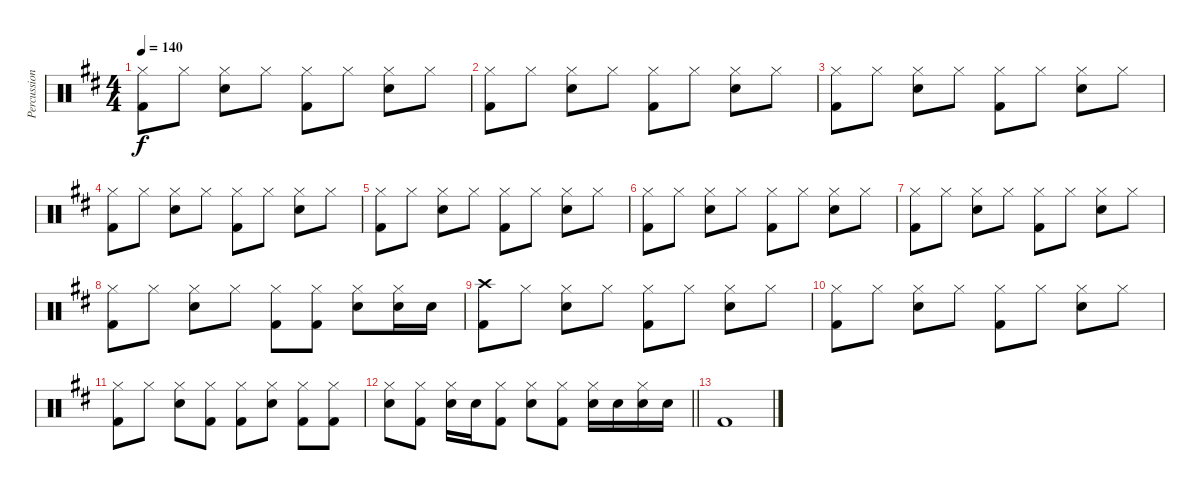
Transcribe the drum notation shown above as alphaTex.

\track ("Percussion" "Percussion") {instrument percussion}
\staff {score}
\articulation defaults
\ts (4 4)
\tempo 140
\clef neutral
\ks bminor
("Hi-Hat (closed)" "Kick (hit) 2").8{dy f} "Hi-Hat (closed)".8 ("Hi-Hat (closed)" "Snare (hit) 2").8 "Hi-Hat (closed)".8 ("Hi-Hat (closed)" "Kick (hit) 2").8 "Hi-Hat (closed)".8 ("Hi-Hat (closed)" "Snare (hit) 2").8 "Hi-Hat (closed)".8 |
("Hi-Hat (closed)" "Kick (hit) 2").8 "Hi-Hat (closed)".8 ("Hi-Hat (closed)" "Snare (hit) 2").8 "Hi-Hat (closed)".8 ("Hi-Hat (closed)" "Kick (hit) 2").8 "Hi-Hat (closed)".8 ("Hi-Hat (closed)" "Snare (hit) 2").8 "Hi-Hat (closed)".8 |
("Hi-Hat (closed)" "Kick (hit) 2").8 "Hi-Hat (closed)".8 ("Hi-Hat (closed)" "Snare (hit) 2").8 "Hi-Hat (closed)".8 ("Hi-Hat (closed)" "Kick (hit) 2").8 "Hi-Hat (closed)".8 ("Hi-Hat (closed)" "Snare (hit) 2").8 "Hi-Hat (closed)".8 |
("Hi-Hat (closed)" "Kick (hit) 2").8 "Hi-Hat (closed)".8 ("Hi-Hat (closed)" "Snare (hit) 2").8 "Hi-Hat (closed)".8 ("Hi-Hat (closed)" "Kick (hit) 2").8 "Hi-Hat (closed)".8 ("Hi-Hat (closed)" "Snare (hit) 2").8 "Hi-Hat (closed)".8 |
("Hi-Hat (closed)" "Kick (hit) 2").8 "Hi-Hat (closed)".8 ("Hi-Hat (closed)" "Snare (hit) 2").8 "Hi-Hat (closed)".8 ("Hi-Hat (closed)" "Kick (hit) 2").8 "Hi-Hat (closed)".8 ("Hi-Hat (closed)" "Snare (hit) 2").8 "Hi-Hat (closed)".8 |
("Hi-Hat (closed)" "Kick (hit) 2").8 "Hi-Hat (closed)".8 ("Hi-Hat (closed)" "Snare (hit) 2").8 "Hi-Hat (closed)".8 ("Hi-Hat (closed)" "Kick (hit) 2").8 "Hi-Hat (closed)".8 ("Hi-Hat (closed)" "Snare (hit) 2").8 "Hi-Hat (closed)".8 |
("Hi-Hat (closed)" "Kick (hit) 2").8 "Hi-Hat (closed)".8 ("Hi-Hat (closed)" "Snare (hit) 2").8 "Hi-Hat (closed)".8 ("Hi-Hat (closed)" "Kick (hit) 2").8 "Hi-Hat (closed)".8 ("Hi-Hat (closed)" "Snare (hit) 2").8 "Hi-Hat (closed)".8 |
("Hi-Hat (closed)" "Kick (hit) 2").8 "Hi-Hat (closed)".8 ("Hi-Hat (closed)" "Snare (hit) 2").8 "Hi-Hat (closed)".8 ("Hi-Hat (closed)" "Kick (hit) 2").8 ("Hi-Hat (closed)" "Kick (hit) 2").8 ("Hi-Hat (closed)" "Snare (hit) 2").8 ("Hi-Hat (closed)" "Snare (hit) 2").16 "Snare (hit) 2".16 |
("Crash high (hit)" "Kick (hit) 2").8 "Hi-Hat (closed)".8 ("Hi-Hat (closed)" "Snare (hit) 2").8 "Hi-Hat (closed)".8 ("Hi-Hat (closed)" "Kick (hit) 2").8 "Hi-Hat (closed)".8 ("Hi-Hat (closed)" "Snare (hit) 2").8 "Hi-Hat (closed)".8 |
("Hi-Hat (closed)" "Kick (hit) 2").8 "Hi-Hat (closed)".8 ("Hi-Hat (closed)" "Snare (hit) 2").8 "Hi-Hat (closed)".8 ("Hi-Hat (closed)" "Kick (hit) 2").8 "Hi-Hat (closed)".8 ("Hi-Hat (closed)" "Snare (hit) 2").8 "Hi-Hat (closed)".8 |
("Hi-Hat (closed)" "Kick (hit) 2").8 "Hi-Hat (closed)".8 ("Hi-Hat (closed)" "Snare (hit) 2").8 ("Hi-Hat (closed)" "Kick (hit) 2").8 ("Hi-Hat (closed)" "Kick (hit) 2").8 ("Hi-Hat (closed)" "Snare (hit) 2").8 ("Hi-Hat (closed)" "Kick (hit) 2").8 ("Hi-Hat (closed)" "Kick (hit) 2").8 |
\barLineRight lightlight
("Hi-Hat (closed)" "Snare (hit) 2").8 ("Hi-Hat (closed)" "Kick (hit) 2").8 ("Hi-Hat (closed)" "Snare (hit) 2").16 "Snare (hit) 2".16 ("Hi-Hat (closed)" "Kick (hit) 2").8 ("Hi-Hat (closed)" "Snare (hit) 2").8 ("Hi-Hat (closed)" "Kick (hit) 2").8 ("Hi-Hat (closed)" "Snare (hit) 2").16 "Snare (hit) 2".16 ("Hi-Hat (closed)" "Snare (hit) 2").16 "Snare (hit) 2".16 |
"Kick (hit) 2".1
